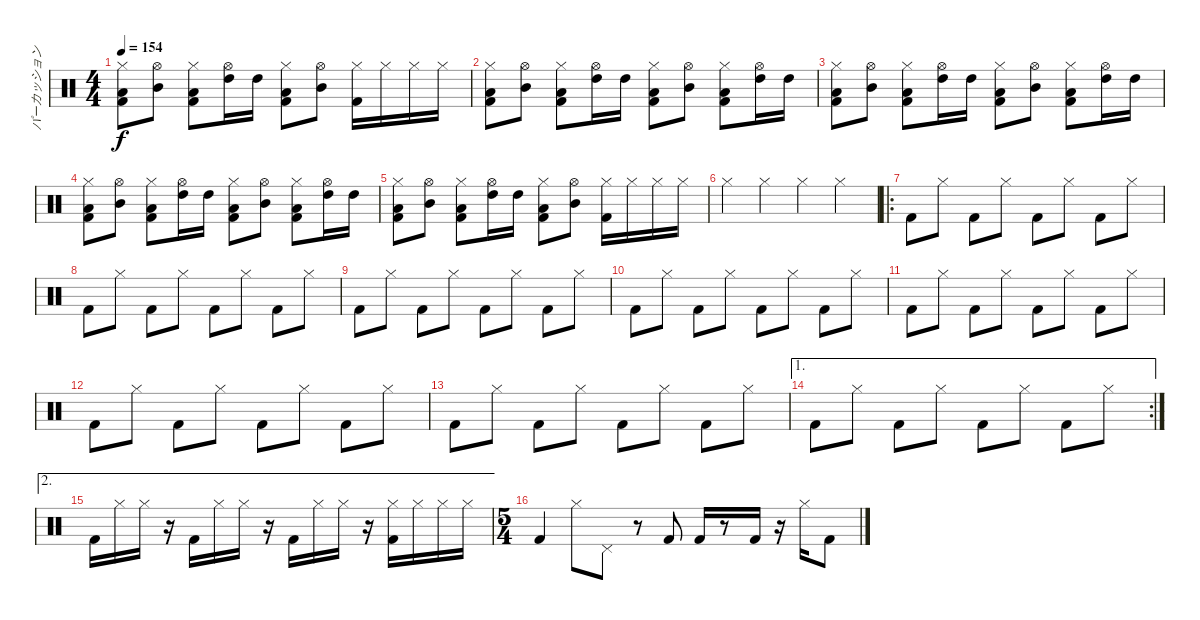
\track ("パーカッション" "パーカッション") {instrument percussion}
\staff {score}
\articulation defaults
\ts (4 4)
\tempo 154
\clef neutral
\ks c
("Hi-Hat (closed)" "Low Tom (hit)" "Kick (hit) 2").8{dy f} ("Hi-Hat (open)" "Mid Tom (hit)").8 ("Hi-Hat (closed)" "Low Tom (hit)" "Kick (hit) 2").8 ("Hi-Hat (open)" "High Tom (hit)").16 "High Tom (hit)".16 ("Hi-Hat (closed)" "Low Tom (hit)" "Kick (hit) 2").8 ("Hi-Hat (open)" "Mid Tom (hit)").8 ("Hi-Hat (closed)" "Kick (hit) 2").16 "Hi-Hat (closed)".16 "Hi-Hat (closed)".16 "Hi-Hat (closed)".16 |
("Hi-Hat (closed)" "Low Tom (hit)" "Kick (hit) 2").8 ("Hi-Hat (open)" "Mid Tom (hit)").8 ("Hi-Hat (closed)" "Low Tom (hit)" "Kick (hit) 2").8 ("Hi-Hat (open)" "High Tom (hit)").16 "High Tom (hit)".16 ("Hi-Hat (closed)" "Low Tom (hit)" "Kick (hit) 2").8 ("Hi-Hat (open)" "Mid Tom (hit)").8 ("Hi-Hat (closed)" "Low Tom (hit)" "Kick (hit) 2").8 ("Hi-Hat (open)" "High Tom (hit)").16 "High Tom (hit)".16 |
("Hi-Hat (closed)" "Low Tom (hit)" "Kick (hit) 2").8 ("Hi-Hat (open)" "Mid Tom (hit)").8 ("Hi-Hat (closed)" "Low Tom (hit)" "Kick (hit) 2").8 ("Hi-Hat (open)" "High Tom (hit)").16 "High Tom (hit)".16 ("Hi-Hat (closed)" "Low Tom (hit)" "Kick (hit) 2").8 ("Hi-Hat (open)" "Mid Tom (hit)").8 ("Hi-Hat (closed)" "Low Tom (hit)" "Kick (hit) 2").8 ("Hi-Hat (open)" "High Tom (hit)").16 "High Tom (hit)".16 |
("Hi-Hat (closed)" "Low Tom (hit)" "Kick (hit) 2").8 ("Hi-Hat (open)" "Mid Tom (hit)").8 ("Hi-Hat (closed)" "Low Tom (hit)" "Kick (hit) 2").8 ("Hi-Hat (open)" "High Tom (hit)").16 "High Tom (hit)".16 ("Hi-Hat (closed)" "Low Tom (hit)" "Kick (hit) 2").8 ("Hi-Hat (open)" "Mid Tom (hit)").8 ("Hi-Hat (closed)" "Low Tom (hit)" "Kick (hit) 2").8 ("Hi-Hat (open)" "High Tom (hit)").16 "High Tom (hit)".16 |
("Hi-Hat (closed)" "Low Tom (hit)" "Kick (hit) 2").8 ("Hi-Hat (open)" "Mid Tom (hit)").8 ("Hi-Hat (closed)" "Low Tom (hit)" "Kick (hit) 2").8 ("Hi-Hat (open)" "High Tom (hit)").16 "High Tom (hit)".16 ("Hi-Hat (closed)" "Low Tom (hit)" "Kick (hit) 2").8 ("Hi-Hat (open)" "Mid Tom (hit)").8 ("Hi-Hat (closed)" "Kick (hit) 2").16 "Hi-Hat (closed)".16 "Hi-Hat (closed)".16 "Hi-Hat (closed)".16 |
"Hi-Hat (closed)".4 "Hi-Hat (closed)".4 "Hi-Hat (closed)".4 "Hi-Hat (closed)".4 |
\ro "Kick (hit) 2".8 "Hi-Hat (closed)".8 "Kick (hit) 2".8 "Hi-Hat (closed)".8 "Kick (hit) 2".8 "Hi-Hat (closed)".8 "Kick (hit) 2".8 "Hi-Hat (closed)".8
|
"Kick (hit) 2".8 "Hi-Hat (closed)".8 "Kick (hit) 2".8 "Hi-Hat (closed)".8 "Kick (hit) 2".8 "Hi-Hat (closed)".8 "Kick (hit) 2".8 "Hi-Hat (closed)".8 |
"Kick (hit) 2".8 "Hi-Hat (closed)".8 "Kick (hit) 2".8 "Hi-Hat (closed)".8 "Kick (hit) 2".8 "Hi-Hat (closed)".8 "Kick (hit) 2".8 "Hi-Hat (closed)".8 |
"Kick (hit) 2".8 "Hi-Hat (closed)".8 "Kick (hit) 2".8 "Hi-Hat (closed)".8 "Kick (hit) 2".8 "Hi-Hat (closed)".8 "Kick (hit) 2".8 "Hi-Hat (closed)".8 |
"Kick (hit) 2".8 "Hi-Hat (closed)".8 "Kick (hit) 2".8 "Hi-Hat (closed)".8 "Kick (hit) 2".8 "Hi-Hat (closed)".8 "Kick (hit) 2".8 "Hi-Hat (closed)".8 |
"Kick (hit) 2".8 "Hi-Hat (closed)".8 "Kick (hit) 2".8 "Hi-Hat (closed)".8 "Kick (hit) 2".8 "Hi-Hat (closed)".8 "Kick (hit) 2".8 "Hi-Hat (closed)".8 |
"Kick (hit) 2".8 "Hi-Hat (closed)".8 "Kick (hit) 2".8 "Hi-Hat (closed)".8 "Kick (hit) 2".8 "Hi-Hat (closed)".8 "Kick (hit) 2".8 "Hi-Hat (closed)".8 |
\ae 1
\rc 2 "Kick (hit) 2".8 "Hi-Hat (closed)".8 "Kick (hit) 2".8 "Hi-Hat (closed)".8 "Kick (hit) 2".8 "Hi-Hat (closed)".8 "Kick (hit) 2".8 "Hi-Hat (closed)".8
|
\ae 2 "Kick (hit) 2".16 "Hi-Hat (closed)".16 "Hi-Hat (closed)".16
r.16 "Kick (hit) 2".16 "Hi-Hat (closed)".16 "Hi-Hat (closed)".16 r.16 "Kick (hit) 2".16 "Hi-Hat (closed)".16 "Hi-Hat (closed)".16 r.16 ("Hi-Hat (closed)" "Kick (hit) 2").16 "Hi-Hat (closed)".16 "Hi-Hat (closed)".16 "Hi-Hat (closed)".16 |
\ts (5 4)
"Kick (hit) 2".4 "Hi-Hat (closed)".8 "Pedal Hi-Hat (hit)".8 r.8 "Kick (hit) 2".8 "Kick (hit) 2".16 r.8 "Kick (hit) 2".16 r.16 "Hi-Hat (closed)".16 "Kick (hit) 2".8
